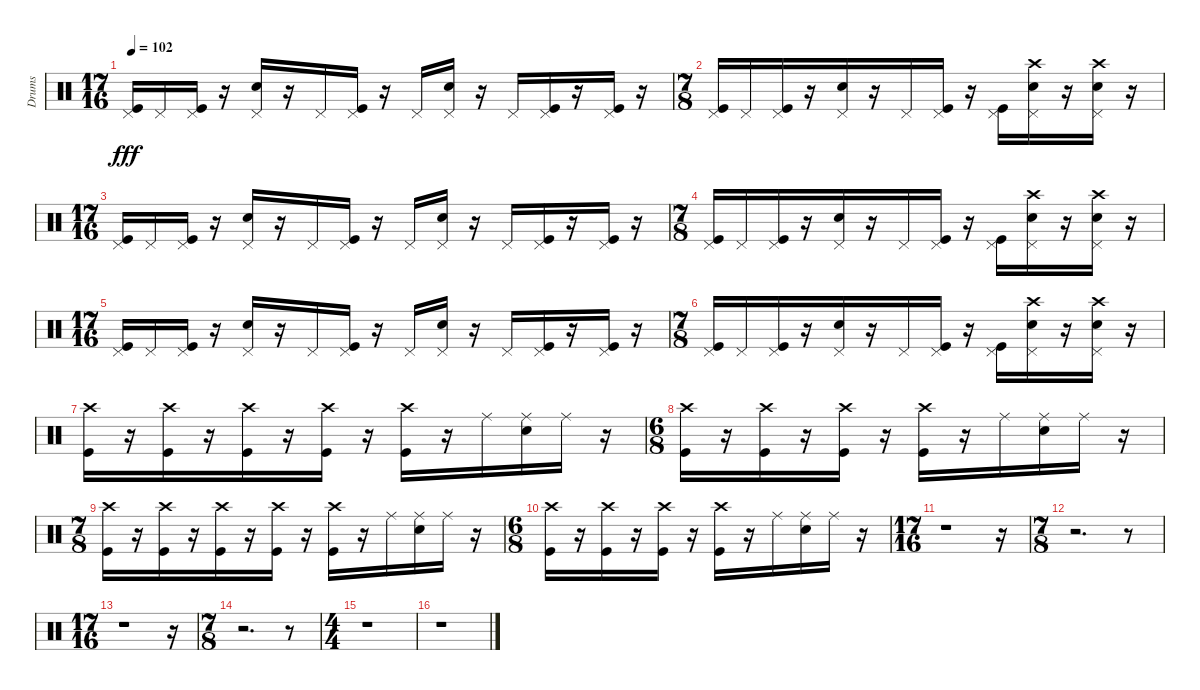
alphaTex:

\track ("Drums" "Drums") {instrument percussion}
\staff {score}
\articulation defaults
\ts (17 16)
\tempo 102
\clef neutral
\ks c
("Pedal Hi-Hat (hit)" "Kick (hit)").16{dy fff} "Pedal Hi-Hat (hit)".16 ("Pedal Hi-Hat (hit)" "Kick (hit)").16 r.16 ("Pedal Hi-Hat (hit)" "Snare (hit) 2").16 r.16 "Pedal Hi-Hat (hit)".16 ("Pedal Hi-Hat (hit)" "Kick (hit)").16 r.16 "Pedal Hi-Hat (hit)".16 ("Pedal Hi-Hat (hit)" "Snare (hit) 2").16 r.16 "Pedal Hi-Hat (hit)".16 ("Pedal Hi-Hat (hit)" "Kick (hit)").16 r.16 ("Pedal Hi-Hat (hit)" "Kick (hit)").16 r.16 |
\ts (7 8)
("Pedal Hi-Hat (hit)" "Kick (hit)").16 "Pedal Hi-Hat (hit)".16 ("Pedal Hi-Hat (hit)" "Kick (hit)").16 r.16 ("Pedal Hi-Hat (hit)" "Snare (hit) 2").16 r.16 "Pedal Hi-Hat (hit)".16 ("Pedal Hi-Hat (hit)" "Kick (hit)").16 r.16 ("Pedal Hi-Hat (hit)" "Kick (hit)").16 ("Pedal Hi-Hat (hit)" "Snare (hit) 2" "Crash high (hit)").16 r.16 ("Pedal Hi-Hat (hit)" "Crash high (hit)" "Snare (hit) 2").16 r.16 |
\ts (17 16)
("Pedal Hi-Hat (hit)" "Kick (hit)").16 "Pedal Hi-Hat (hit)".16 ("Pedal Hi-Hat (hit)" "Kick (hit)").16 r.16 ("Pedal Hi-Hat (hit)" "Snare (hit) 2").16 r.16 "Pedal Hi-Hat (hit)".16 ("Pedal Hi-Hat (hit)" "Kick (hit)").16 r.16 "Pedal Hi-Hat (hit)".16 ("Pedal Hi-Hat (hit)" "Snare (hit) 2").16 r.16 "Pedal Hi-Hat (hit)".16 ("Pedal Hi-Hat (hit)" "Kick (hit)").16 r.16 ("Pedal Hi-Hat (hit)" "Kick (hit)").16 r.16 |
\ts (7 8)
("Pedal Hi-Hat (hit)" "Kick (hit)").16 "Pedal Hi-Hat (hit)".16 ("Pedal Hi-Hat (hit)" "Kick (hit)").16 r.16 ("Pedal Hi-Hat (hit)" "Snare (hit) 2").16 r.16 "Pedal Hi-Hat (hit)".16 ("Pedal Hi-Hat (hit)" "Kick (hit)").16 r.16 ("Pedal Hi-Hat (hit)" "Kick (hit)").16 ("Pedal Hi-Hat (hit)" "Snare (hit) 2" "Crash high (hit)").16 r.16 ("Pedal Hi-Hat (hit)" "Crash high (hit)" "Snare (hit) 2").16 r.16 |
\ts (17 16)
("Kick (hit)" "Pedal Hi-Hat (hit)").16 "Pedal Hi-Hat (hit)".16 ("Kick (hit)" "Pedal Hi-Hat (hit)").16 r.16 ("Snare (hit) 2" "Pedal Hi-Hat (hit)").16 r.16 "Pedal Hi-Hat (hit)".16 ("Kick (hit)" "Pedal Hi-Hat (hit)").16 r.16 "Pedal Hi-Hat (hit)".16 ("Snare (hit) 2" "Pedal Hi-Hat (hit)").16 r.16 "Pedal Hi-Hat (hit)".16 ("Kick (hit)" "Pedal Hi-Hat (hit)").16 r.16 ("Kick (hit)" "Pedal Hi-Hat (hit)").16 r.16 |
\ts (7 8)
("Kick (hit)" "Pedal Hi-Hat (hit)").16 "Pedal Hi-Hat (hit)".16 ("Kick (hit)" "Pedal Hi-Hat (hit)").16 r.16 ("Snare (hit) 2" "Pedal Hi-Hat (hit)").16 r.16 "Pedal Hi-Hat (hit)".16 ("Kick (hit)" "Pedal Hi-Hat (hit)").16 r.16 ("Kick (hit)" "Pedal Hi-Hat (hit)").16 ("Crash high (hit)" "Snare (hit) 2" "Pedal Hi-Hat (hit)").16 r.16 ("Snare (hit) 2" "Crash high (hit)" "Pedal Hi-Hat (hit)").16 r.16 |
("Crash high (hit)" "Kick (hit)").16 r.16 ("Crash high (hit)" "Kick (hit)").16 r.16 ("Crash high (hit)" "Kick (hit)").16 r.16 ("Crash high (hit)" "Kick (hit)").16 r.16 ("Crash high (hit)" "Kick (hit)").16 r.16 "Ride (middle)".16 ("Snare (hit) 2" "Ride (middle)").16 "Ride (middle)".16 r.16 |
\ts (6 8)
("Kick (hit)" "Crash high (hit)").16 r.16 ("Kick (hit)" "Crash high (hit)").16 r.16 ("Kick (hit)" "Crash high (hit)").16 r.16 ("Kick (hit)" "Crash high (hit)").16 r.16 "Ride (middle)".16 ("Snare (hit) 2" "Ride (middle)").16 "Ride (middle)".16 r.16 |
\ts (7 8)
("Kick (hit)" "Crash high (hit)").16 r.16 ("Kick (hit)" "Crash high (hit)").16 r.16 ("Kick (hit)" "Crash high (hit)").16 r.16 ("Kick (hit)" "Crash high (hit)").16 r.16 ("Kick (hit)" "Crash high (hit)").16 r.16 "Ride (middle)".16 ("Ride (middle)" "Snare (hit) 2").16 "Ride (middle)".16 r.16 |
\ts (6 8)
("Crash high (hit)" "Kick (hit)").16 r.16 ("Crash high (hit)" "Kick (hit)").16 r.16 ("Crash high (hit)" "Kick (hit)").16 r.16 ("Crash high (hit)" "Kick (hit)").16 r.16 "Ride (middle)".16 ("Ride (middle)" "Snare (hit) 2").16 "Ride (middle)".16 r.16 |
\ts (17 16)
r.1 r.16 |
\ts (7 8)
r.2{d} r.8 |
\ts (17 16)
r.1 r.16 |
\ts (7 8)
r.2{d} r.8 |
\ts (4 4)
r.1 |
r.1
